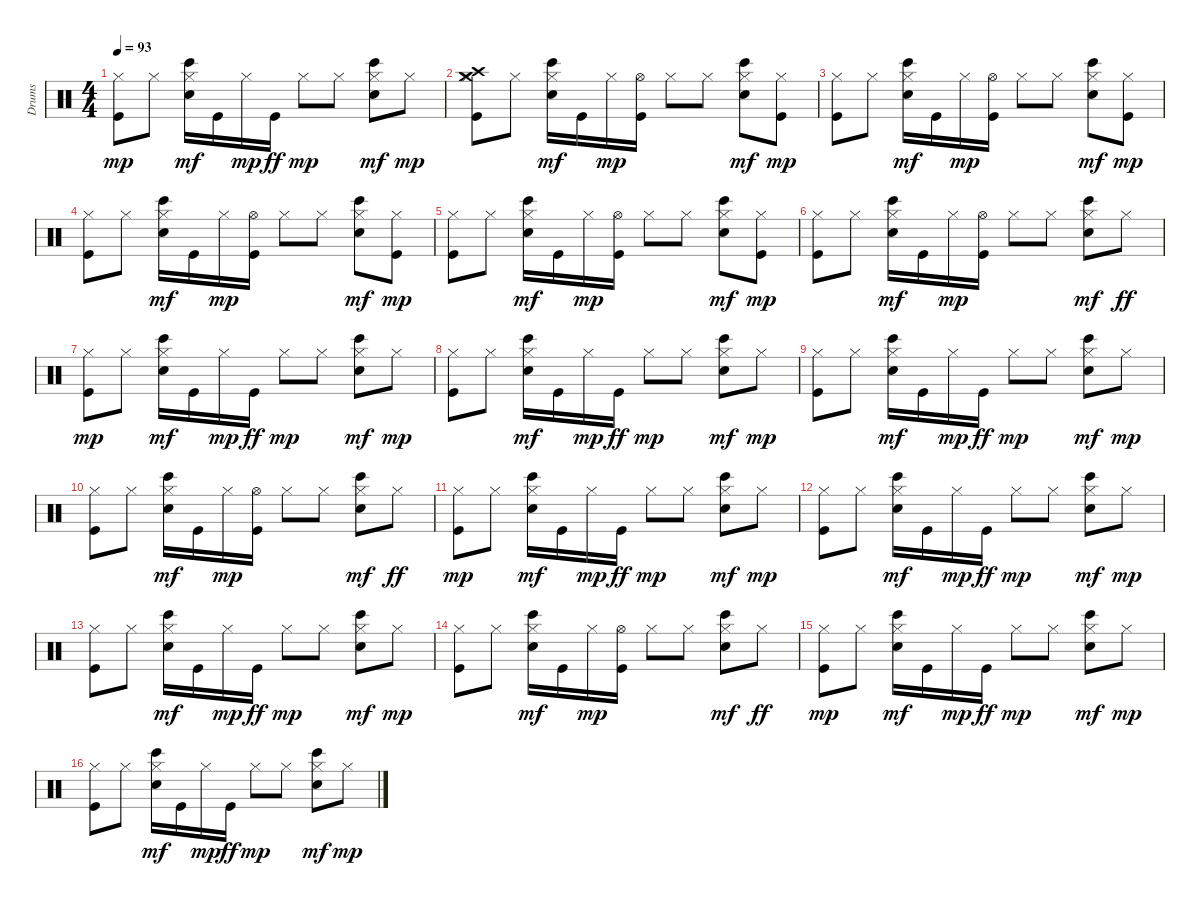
\track ("Drums" "Drums") {instrument percussion}
\staff {score}
\articulation defaults
\ts (4 4)
\tempo 93
\clef neutral
\ks c
("Kick (hit)" "Hi-Hat (closed)").8{dy mp} "Hi-Hat (closed)".8 ("Hi-Hat (closed)" "Electric Snare (hit)" "Bongo High (hit)").16{dy mf} "Kick (hit)".16 "Hi-Hat (closed)".16{dy mp} "Kick (hit)".16{dy ff} "Hi-Hat (closed)".8{dy mp} "Hi-Hat (closed)".8 ("Hi-Hat (closed)" "Electric Snare (hit)" "Bongo High (hit)").8{dy mf} "Hi-Hat (closed)".8{dy mp} |
("Crash high (hit)" "Crash medium (hit)" "Kick (hit)" "Hi-Hat (closed)").8 "Hi-Hat (closed)".8 ("Hi-Hat (closed)" "Electric Snare (hit)" "Bongo High (hit)").16{dy mf} "Kick (hit)".16 "Hi-Hat (closed)".16{dy mp} ("Kick (hit)" "Hi-Hat (open)").16 "Hi-Hat (closed)".8 "Hi-Hat (closed)".8 ("Hi-Hat (closed)" "Electric Snare (hit)" "Bongo High (hit)").8{dy mf} ("Kick (hit)" "Hi-Hat (closed)").8{dy mp} |
("Kick (hit)" "Hi-Hat (closed)").8 "Hi-Hat (closed)".8 ("Hi-Hat (closed)" "Electric Snare (hit)" "Bongo High (hit)").16{dy mf} "Kick (hit)".16 "Hi-Hat (closed)".16{dy mp} ("Kick (hit)" "Hi-Hat (open)").16 "Hi-Hat (closed)".8 "Hi-Hat (closed)".8 ("Hi-Hat (closed)" "Electric Snare (hit)" "Bongo High (hit)").8{dy mf} ("Kick (hit)" "Hi-Hat (closed)").8{dy mp} |
("Kick (hit)" "Hi-Hat (closed)").8 "Hi-Hat (closed)".8 ("Hi-Hat (closed)" "Electric Snare (hit)" "Bongo High (hit)").16{dy mf} "Kick (hit)".16 "Hi-Hat (closed)".16{dy mp} ("Kick (hit)" "Hi-Hat (open)").16 "Hi-Hat (closed)".8 "Hi-Hat (closed)".8 ("Hi-Hat (closed)" "Electric Snare (hit)" "Bongo High (hit)").8{dy mf} ("Kick (hit)" "Hi-Hat (closed)").8{dy mp} |
("Kick (hit)" "Hi-Hat (closed)").8 "Hi-Hat (closed)".8 ("Hi-Hat (closed)" "Electric Snare (hit)" "Bongo High (hit)").16{dy mf} "Kick (hit)".16 "Hi-Hat (closed)".16{dy mp} ("Kick (hit)" "Hi-Hat (open)").16 "Hi-Hat (closed)".8 "Hi-Hat (closed)".8 ("Hi-Hat (closed)" "Electric Snare (hit)" "Bongo High (hit)").8{dy mf} ("Kick (hit)" "Hi-Hat (closed)").8{dy mp} |
("Kick (hit)" "Hi-Hat (closed)").8 "Hi-Hat (closed)".8 ("Hi-Hat (closed)" "Electric Snare (hit)" "Bongo High (hit)").16{dy mf} "Kick (hit)".16 "Hi-Hat (closed)".16{dy mp} ("Kick (hit)" "Hi-Hat (open)").16 "Hi-Hat (closed)".8 "Hi-Hat (closed)".8 ("Hi-Hat (closed)" "Electric Snare (hit)" "Bongo High (hit)").8{dy mf} "Hi-Hat (closed)".8{dy ff} |
("Kick (hit)" "Hi-Hat (closed)").8{dy mp} "Hi-Hat (closed)".8 ("Hi-Hat (closed)" "Electric Snare (hit)" "Bongo High (hit)").16{dy mf} "Kick (hit)".16 "Hi-Hat (closed)".16{dy mp} "Kick (hit)".16{dy ff} "Hi-Hat (closed)".8{dy mp} "Hi-Hat (closed)".8 ("Hi-Hat (closed)" "Electric Snare (hit)" "Bongo High (hit)").8{dy mf} "Hi-Hat (closed)".8{dy mp} |
("Kick (hit)" "Hi-Hat (closed)").8 "Hi-Hat (closed)".8 ("Hi-Hat (closed)" "Electric Snare (hit)" "Bongo High (hit)").16{dy mf} "Kick (hit)".16 "Hi-Hat (closed)".16{dy mp} "Kick (hit)".16{dy ff} "Hi-Hat (closed)".8{dy mp} "Hi-Hat (closed)".8 ("Hi-Hat (closed)" "Electric Snare (hit)" "Bongo High (hit)").8{dy mf} "Hi-Hat (closed)".8{dy mp} |
("Kick (hit)" "Hi-Hat (closed)").8 "Hi-Hat (closed)".8 ("Hi-Hat (closed)" "Electric Snare (hit)" "Bongo High (hit)").16{dy mf} "Kick (hit)".16 "Hi-Hat (closed)".16{dy mp} "Kick (hit)".16{dy ff} "Hi-Hat (closed)".8{dy mp} "Hi-Hat (closed)".8 ("Hi-Hat (closed)" "Electric Snare (hit)" "Bongo High (hit)").8{dy mf} "Hi-Hat (closed)".8{dy mp} |
("Kick (hit)" "Hi-Hat (closed)").8 "Hi-Hat (closed)".8 ("Hi-Hat (closed)" "Electric Snare (hit)" "Bongo High (hit)").16{dy mf} "Kick (hit)".16 "Hi-Hat (closed)".16{dy mp} ("Kick (hit)" "Hi-Hat (open)").16 "Hi-Hat (closed)".8 "Hi-Hat (closed)".8 ("Hi-Hat (closed)" "Electric Snare (hit)" "Bongo High (hit)").8{dy mf} "Hi-Hat (closed)".8{dy ff} |
("Kick (hit)" "Hi-Hat (closed)").8{dy mp} "Hi-Hat (closed)".8 ("Hi-Hat (closed)" "Electric Snare (hit)" "Bongo High (hit)").16{dy mf} "Kick (hit)".16 "Hi-Hat (closed)".16{dy mp} "Kick (hit)".16{dy ff} "Hi-Hat (closed)".8{dy mp} "Hi-Hat (closed)".8 ("Hi-Hat (closed)" "Electric Snare (hit)" "Bongo High (hit)").8{dy mf} "Hi-Hat (closed)".8{dy mp} |
("Kick (hit)" "Hi-Hat (closed)").8 "Hi-Hat (closed)".8 ("Hi-Hat (closed)" "Electric Snare (hit)" "Bongo High (hit)").16{dy mf} "Kick (hit)".16 "Hi-Hat (closed)".16{dy mp} "Kick (hit)".16{dy ff} "Hi-Hat (closed)".8{dy mp} "Hi-Hat (closed)".8 ("Hi-Hat (closed)" "Electric Snare (hit)" "Bongo High (hit)").8{dy mf} "Hi-Hat (closed)".8{dy mp} |
("Kick (hit)" "Hi-Hat (closed)").8 "Hi-Hat (closed)".8 ("Hi-Hat (closed)" "Electric Snare (hit)" "Bongo High (hit)").16{dy mf} "Kick (hit)".16 "Hi-Hat (closed)".16{dy mp} "Kick (hit)".16{dy ff} "Hi-Hat (closed)".8{dy mp} "Hi-Hat (closed)".8 ("Hi-Hat (closed)" "Electric Snare (hit)" "Bongo High (hit)").8{dy mf} "Hi-Hat (closed)".8{dy mp} |
("Kick (hit)" "Hi-Hat (closed)").8 "Hi-Hat (closed)".8 ("Hi-Hat (closed)" "Electric Snare (hit)" "Bongo High (hit)").16{dy mf} "Kick (hit)".16 "Hi-Hat (closed)".16{dy mp} ("Kick (hit)" "Hi-Hat (open)").16 "Hi-Hat (closed)".8 "Hi-Hat (closed)".8 ("Hi-Hat (closed)" "Electric Snare (hit)" "Bongo High (hit)").8{dy mf} "Hi-Hat (closed)".8{dy ff} |
("Kick (hit)" "Hi-Hat (closed)").8{dy mp} "Hi-Hat (closed)".8 ("Hi-Hat (closed)" "Electric Snare (hit)" "Bongo High (hit)").16{dy mf} "Kick (hit)".16 "Hi-Hat (closed)".16{dy mp} "Kick (hit)".16{dy ff} "Hi-Hat (closed)".8{dy mp} "Hi-Hat (closed)".8 ("Hi-Hat (closed)" "Electric Snare (hit)" "Bongo High (hit)").8{dy mf} "Hi-Hat (closed)".8{dy mp} |
("Kick (hit)" "Hi-Hat (closed)").8 "Hi-Hat (closed)".8 ("Hi-Hat (closed)" "Electric Snare (hit)" "Bongo High (hit)").16{dy mf} "Kick (hit)".16 "Hi-Hat (closed)".16{dy mp} "Kick (hit)".16{dy ff} "Hi-Hat (closed)".8{dy mp} "Hi-Hat (closed)".8 ("Hi-Hat (closed)" "Electric Snare (hit)" "Bongo High (hit)").8{dy mf} "Hi-Hat (closed)".8{dy mp}
